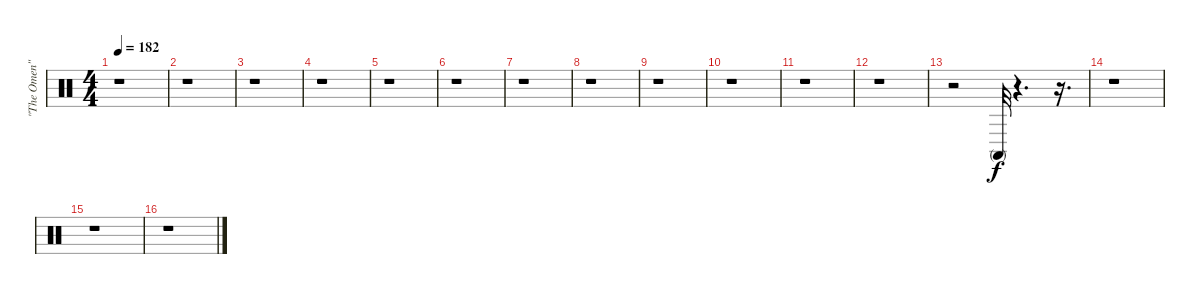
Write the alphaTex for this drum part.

\track ("\"The Omen\"" "\"The Omen\"") {instrument percussion}
\staff {score}
\articulation defaults
\ts (4 4)
\tempo 182
\clef neutral
\ks c
r.1{dy f} |
r.1 |
r.1 |
r.1 |
r.1 |
r.1 |
r.1 |
r.1 |
r.1 |
r.1 |
r.1 |
r.1 |
r.2 "Conga high (mute)".32 r.4{d} r.16{d} |
r.1 |
r.1 |
r.1
